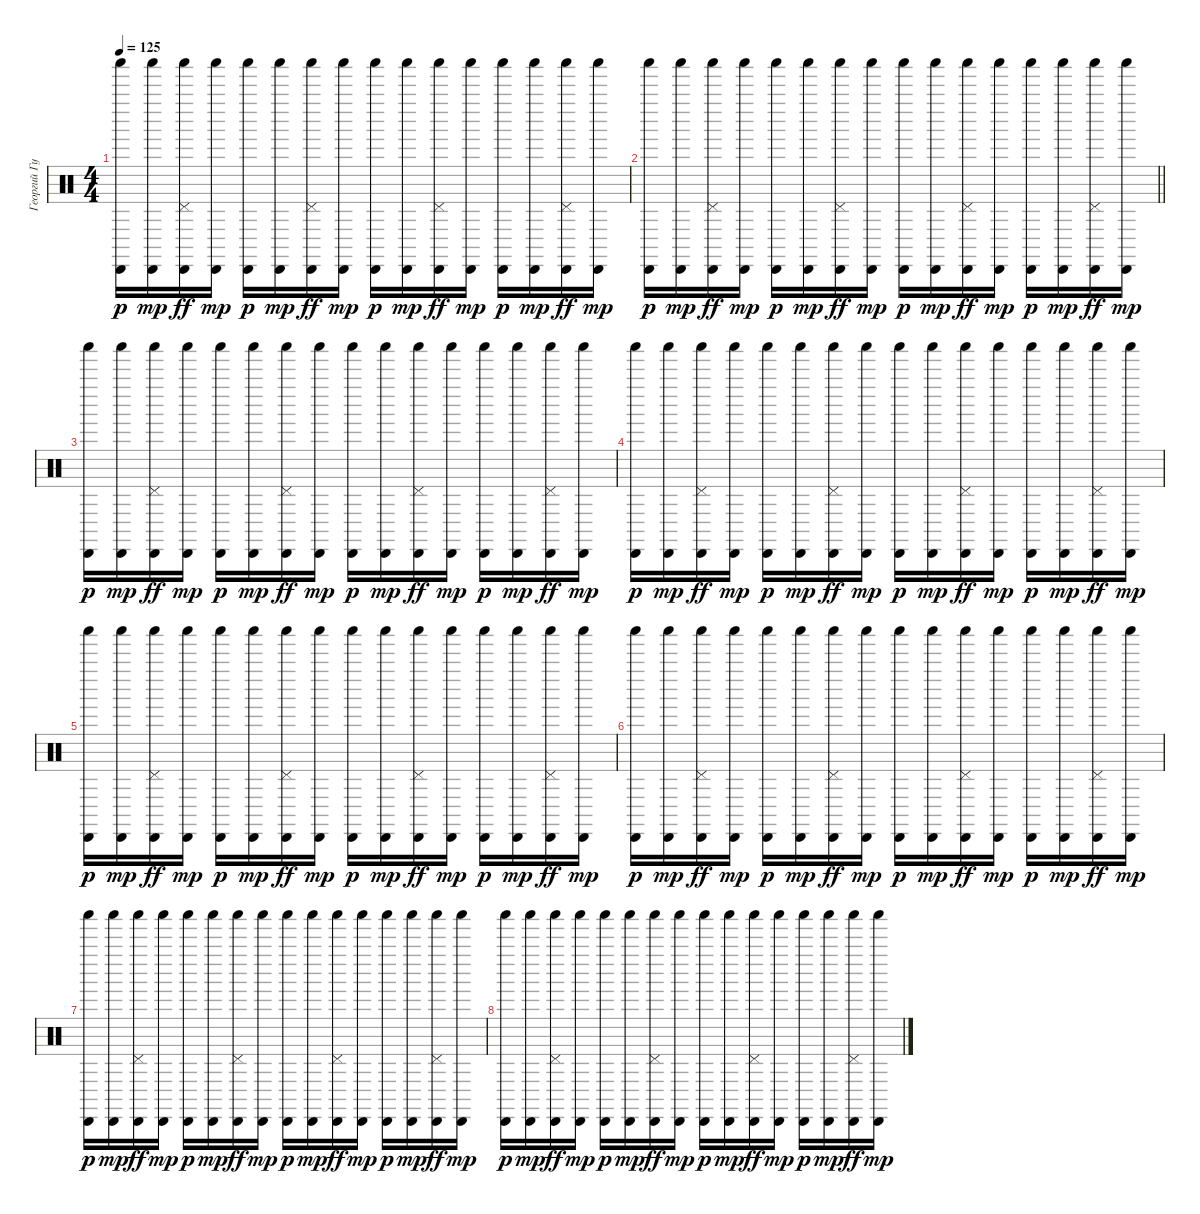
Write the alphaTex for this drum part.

\track ("Георгий Гурьянов_2" "Георгий Гу") {instrument percussion}
\staff {score}
\articulation defaults
\ts (4 4)
\tempo 125
\clef neutral
\ks c
("Cabasa (hit)" "Shaker (hit)").16{dy p} ("Cabasa (hit)" "Shaker (hit)").16{dy mp} ("Cabasa (hit)" "Shaker (hit)" "Pedal Hi-Hat (hit)").16{dy ff} ("Cabasa (hit)" "Shaker (hit)").16{dy mp} ("Cabasa (hit)" "Shaker (hit)").16{dy p} ("Cabasa (hit)" "Shaker (hit)").16{dy mp} ("Cabasa (hit)" "Shaker (hit)" "Pedal Hi-Hat (hit)").16{dy ff} ("Cabasa (hit)" "Shaker (hit)").16{dy mp} ("Cabasa (hit)" "Shaker (hit)").16{dy p} ("Cabasa (hit)" "Shaker (hit)").16{dy mp} ("Cabasa (hit)" "Shaker (hit)" "Pedal Hi-Hat (hit)").16{dy ff} ("Cabasa (hit)" "Shaker (hit)").16{dy mp} ("Cabasa (hit)" "Shaker (hit)").16{dy p} ("Cabasa (hit)" "Shaker (hit)").16{dy mp} ("Cabasa (hit)" "Shaker (hit)" "Pedal Hi-Hat (hit)").16{dy ff} ("Cabasa (hit)" "Shaker (hit)").16{dy mp} |
\barLineRight lightlight
("Cabasa (hit)" "Shaker (hit)").16{dy p} ("Cabasa (hit)" "Shaker (hit)").16{dy mp} ("Cabasa (hit)" "Shaker (hit)" "Pedal Hi-Hat (hit)").16{dy ff} ("Cabasa (hit)" "Shaker (hit)").16{dy mp} ("Cabasa (hit)" "Shaker (hit)").16{dy p} ("Cabasa (hit)" "Shaker (hit)").16{dy mp} ("Cabasa (hit)" "Shaker (hit)" "Pedal Hi-Hat (hit)").16{dy ff} ("Cabasa (hit)" "Shaker (hit)").16{dy mp} ("Cabasa (hit)" "Shaker (hit)").16{dy p} ("Cabasa (hit)" "Shaker (hit)").16{dy mp} ("Cabasa (hit)" "Shaker (hit)" "Pedal Hi-Hat (hit)").16{dy ff} ("Cabasa (hit)" "Shaker (hit)").16{dy mp} ("Cabasa (hit)" "Shaker (hit)").16{dy p} ("Cabasa (hit)" "Shaker (hit)").16{dy mp} ("Cabasa (hit)" "Shaker (hit)" "Pedal Hi-Hat (hit)").16{dy ff} ("Cabasa (hit)" "Shaker (hit)").16{dy mp} |
("Cabasa (hit)" "Shaker (hit)").16{dy p} ("Cabasa (hit)" "Shaker (hit)").16{dy mp} ("Cabasa (hit)" "Shaker (hit)" "Pedal Hi-Hat (hit)").16{dy ff} ("Cabasa (hit)" "Shaker (hit)").16{dy mp} ("Cabasa (hit)" "Shaker (hit)").16{dy p} ("Cabasa (hit)" "Shaker (hit)").16{dy mp} ("Cabasa (hit)" "Shaker (hit)" "Pedal Hi-Hat (hit)").16{dy ff} ("Cabasa (hit)" "Shaker (hit)").16{dy mp} ("Cabasa (hit)" "Shaker (hit)").16{dy p} ("Cabasa (hit)" "Shaker (hit)").16{dy mp} ("Cabasa (hit)" "Shaker (hit)" "Pedal Hi-Hat (hit)").16{dy ff} ("Cabasa (hit)" "Shaker (hit)").16{dy mp} ("Cabasa (hit)" "Shaker (hit)").16{dy p} ("Cabasa (hit)" "Shaker (hit)").16{dy mp} ("Cabasa (hit)" "Shaker (hit)" "Pedal Hi-Hat (hit)").16{dy ff} ("Cabasa (hit)" "Shaker (hit)").16{dy mp} |
("Cabasa (hit)" "Shaker (hit)").16{dy p} ("Cabasa (hit)" "Shaker (hit)").16{dy mp} ("Cabasa (hit)" "Shaker (hit)" "Pedal Hi-Hat (hit)").16{dy ff} ("Cabasa (hit)" "Shaker (hit)").16{dy mp} ("Cabasa (hit)" "Shaker (hit)").16{dy p} ("Cabasa (hit)" "Shaker (hit)").16{dy mp} ("Cabasa (hit)" "Shaker (hit)" "Pedal Hi-Hat (hit)").16{dy ff} ("Cabasa (hit)" "Shaker (hit)").16{dy mp} ("Cabasa (hit)" "Shaker (hit)").16{dy p} ("Cabasa (hit)" "Shaker (hit)").16{dy mp} ("Cabasa (hit)" "Shaker (hit)" "Pedal Hi-Hat (hit)").16{dy ff} ("Cabasa (hit)" "Shaker (hit)").16{dy mp} ("Cabasa (hit)" "Shaker (hit)").16{dy p} ("Cabasa (hit)" "Shaker (hit)").16{dy mp} ("Cabasa (hit)" "Shaker (hit)" "Pedal Hi-Hat (hit)").16{dy ff} ("Cabasa (hit)" "Shaker (hit)").16{dy mp} |
("Cabasa (hit)" "Shaker (hit)").16{dy p} ("Cabasa (hit)" "Shaker (hit)").16{dy mp} ("Cabasa (hit)" "Shaker (hit)" "Pedal Hi-Hat (hit)").16{dy ff} ("Cabasa (hit)" "Shaker (hit)").16{dy mp} ("Cabasa (hit)" "Shaker (hit)").16{dy p} ("Cabasa (hit)" "Shaker (hit)").16{dy mp} ("Cabasa (hit)" "Shaker (hit)" "Pedal Hi-Hat (hit)").16{dy ff} ("Cabasa (hit)" "Shaker (hit)").16{dy mp} ("Cabasa (hit)" "Shaker (hit)").16{dy p} ("Cabasa (hit)" "Shaker (hit)").16{dy mp} ("Cabasa (hit)" "Shaker (hit)" "Pedal Hi-Hat (hit)").16{dy ff} ("Cabasa (hit)" "Shaker (hit)").16{dy mp} ("Cabasa (hit)" "Shaker (hit)").16{dy p} ("Cabasa (hit)" "Shaker (hit)").16{dy mp} ("Cabasa (hit)" "Shaker (hit)" "Pedal Hi-Hat (hit)").16{dy ff} ("Cabasa (hit)" "Shaker (hit)").16{dy mp} |
("Cabasa (hit)" "Shaker (hit)").16{dy p} ("Cabasa (hit)" "Shaker (hit)").16{dy mp} ("Cabasa (hit)" "Shaker (hit)" "Pedal Hi-Hat (hit)").16{dy ff} ("Cabasa (hit)" "Shaker (hit)").16{dy mp} ("Cabasa (hit)" "Shaker (hit)").16{dy p} ("Cabasa (hit)" "Shaker (hit)").16{dy mp} ("Cabasa (hit)" "Shaker (hit)" "Pedal Hi-Hat (hit)").16{dy ff} ("Cabasa (hit)" "Shaker (hit)").16{dy mp} ("Cabasa (hit)" "Shaker (hit)").16{dy p} ("Cabasa (hit)" "Shaker (hit)").16{dy mp} ("Cabasa (hit)" "Shaker (hit)" "Pedal Hi-Hat (hit)").16{dy ff} ("Cabasa (hit)" "Shaker (hit)").16{dy mp} ("Cabasa (hit)" "Shaker (hit)").16{dy p} ("Cabasa (hit)" "Shaker (hit)").16{dy mp} ("Cabasa (hit)" "Shaker (hit)" "Pedal Hi-Hat (hit)").16{dy ff} ("Cabasa (hit)" "Shaker (hit)").16{dy mp} |
("Cabasa (hit)" "Shaker (hit)").16{dy p} ("Cabasa (hit)" "Shaker (hit)").16{dy mp} ("Cabasa (hit)" "Shaker (hit)" "Pedal Hi-Hat (hit)").16{dy ff} ("Cabasa (hit)" "Shaker (hit)").16{dy mp} ("Cabasa (hit)" "Shaker (hit)").16{dy p} ("Cabasa (hit)" "Shaker (hit)").16{dy mp} ("Cabasa (hit)" "Shaker (hit)" "Pedal Hi-Hat (hit)").16{dy ff} ("Cabasa (hit)" "Shaker (hit)").16{dy mp} ("Cabasa (hit)" "Shaker (hit)").16{dy p} ("Cabasa (hit)" "Shaker (hit)").16{dy mp} ("Cabasa (hit)" "Shaker (hit)" "Pedal Hi-Hat (hit)").16{dy ff} ("Cabasa (hit)" "Shaker (hit)").16{dy mp} ("Cabasa (hit)" "Shaker (hit)").16{dy p} ("Cabasa (hit)" "Shaker (hit)").16{dy mp} ("Cabasa (hit)" "Shaker (hit)" "Pedal Hi-Hat (hit)").16{dy ff} ("Cabasa (hit)" "Shaker (hit)").16{dy mp} |
("Cabasa (hit)" "Shaker (hit)").16{dy p} ("Cabasa (hit)" "Shaker (hit)").16{dy mp} ("Cabasa (hit)" "Shaker (hit)" "Pedal Hi-Hat (hit)").16{dy ff} ("Cabasa (hit)" "Shaker (hit)").16{dy mp} ("Cabasa (hit)" "Shaker (hit)").16{dy p} ("Cabasa (hit)" "Shaker (hit)").16{dy mp} ("Cabasa (hit)" "Shaker (hit)" "Pedal Hi-Hat (hit)").16{dy ff} ("Cabasa (hit)" "Shaker (hit)").16{dy mp} ("Cabasa (hit)" "Shaker (hit)").16{dy p} ("Cabasa (hit)" "Shaker (hit)").16{dy mp} ("Cabasa (hit)" "Shaker (hit)" "Pedal Hi-Hat (hit)").16{dy ff} ("Cabasa (hit)" "Shaker (hit)").16{dy mp} ("Cabasa (hit)" "Shaker (hit)").16{dy p} ("Cabasa (hit)" "Shaker (hit)").16{dy mp} ("Cabasa (hit)" "Shaker (hit)" "Pedal Hi-Hat (hit)").16{dy ff} ("Cabasa (hit)" "Shaker (hit)").16{dy mp}
